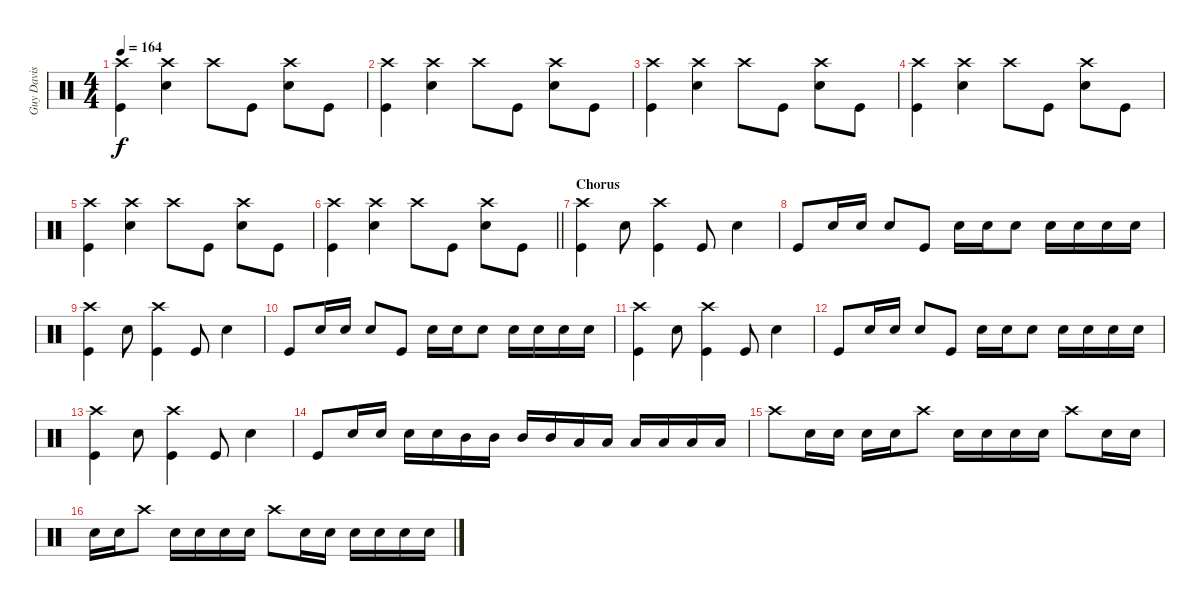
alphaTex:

\track ("Guy Davis" "Guy Davis") {instrument percussion}
\staff {score}
\articulation defaults
\ts (4 4)
\tempo 164
\clef neutral
\ks c
("Crash high (hit)" "Kick (hit)").4{dy f} ("Snare (hit) 2" "Crash high (hit)").4 "Crash high (hit)".8 "Kick (hit)".8 ("Snare (hit) 2" "Crash high (hit)").8 "Kick (hit)".8 |
("Crash high (hit)" "Kick (hit)").4 ("Snare (hit) 2" "Crash high (hit)").4 "Crash high (hit)".8 "Kick (hit)".8 ("Snare (hit) 2" "Crash high (hit)").8 "Kick (hit)".8 |
("Crash high (hit)" "Kick (hit)").4 ("Snare (hit) 2" "Crash high (hit)").4 "Crash high (hit)".8 "Kick (hit)".8 ("Snare (hit) 2" "Crash high (hit)").8 "Kick (hit)".8 |
("Crash high (hit)" "Kick (hit)").4 ("Snare (hit) 2" "Crash high (hit)").4 "Crash high (hit)".8 "Kick (hit)".8 ("Snare (hit) 2" "Crash high (hit)").8 "Kick (hit)".8 |
("Crash high (hit)" "Kick (hit)").4 ("Snare (hit) 2" "Crash high (hit)").4 "Crash high (hit)".8 "Kick (hit)".8 ("Snare (hit) 2" "Crash high (hit)").8 "Kick (hit)".8 |
\barLineRight lightlight
("Crash high (hit)" "Kick (hit)").4 ("Snare (hit) 2" "Crash high (hit)").4 "Crash high (hit)".8 "Kick (hit)".8 ("Snare (hit) 2" "Crash high (hit)").8 "Kick (hit)".8 |
\section ("" "Chorus")
("Crash high (hit)" "Kick (hit)").4 "Snare (hit) 2".8 ("Crash high (hit)" "Kick (hit)").4 "Kick (hit)".8 "Snare (hit) 2".4 |
"Kick (hit)".8 "Snare (hit) 2".16 "Snare (hit) 2".16 "Snare (hit) 2".8 "Kick (hit)".8 "Snare (hit) 2".16 "Snare (hit) 2".16 "Snare (hit) 2".8 "Snare (hit) 2".16 "Snare (hit) 2".16 "Snare (hit) 2".16 "Snare (hit) 2".16 |
("Crash high (hit)" "Kick (hit)").4 "Snare (hit) 2".8 ("Crash high (hit)" "Kick (hit)").4 "Kick (hit)".8 "Snare (hit) 2".4 |
"Kick (hit)".8 "Snare (hit) 2".16 "Snare (hit) 2".16 "Snare (hit) 2".8 "Kick (hit)".8 "Snare (hit) 2".16 "Snare (hit) 2".16 "Snare (hit) 2".8 "Snare (hit) 2".16 "Snare (hit) 2".16 "Snare (hit) 2".16 "Snare (hit) 2".16 |
("Crash high (hit)" "Kick (hit)").4 "Snare (hit) 2".8 ("Crash high (hit)" "Kick (hit)").4 "Kick (hit)".8 "Snare (hit) 2".4 |
"Kick (hit)".8 "Snare (hit) 2".16 "Snare (hit) 2".16 "Snare (hit) 2".8 "Kick (hit)".8 "Snare (hit) 2".16 "Snare (hit) 2".16 "Snare (hit) 2".8 "Snare (hit) 2".16 "Snare (hit) 2".16 "Snare (hit) 2".16 "Snare (hit) 2".16 |
("Crash high (hit)" "Kick (hit)").4 "Snare (hit) 2".8 ("Crash high (hit)" "Kick (hit)").4 "Kick (hit)".8 "Snare (hit) 2".4 |
"Kick (hit)".8 "Snare (hit) 2".16 "Snare (hit) 2".16 "Snare (hit) 2".16 "Snare (hit) 2".16 "Mid Tom (hit)".16 "Mid Tom (hit)".16 "Mid Tom (hit)".16 "Mid Tom (hit)".16 "Low Tom (hit)".16 "Low Tom (hit)".16 "Low Tom (hit)".16 "Low Tom (hit)".16 "Low Tom (hit)".16 "Low Tom (hit)".16 |
"Crash high (hit)".8 "Snare (hit) 2".16 "Snare (hit) 2".16 "Snare (hit) 2".16 "Snare (hit) 2".16 "Crash high (hit)".8 "Snare (hit) 2".16 "Snare (hit) 2".16 "Snare (hit) 2".16 "Snare (hit) 2".16 "Crash high (hit)".8 "Snare (hit) 2".16 "Snare (hit) 2".16 |
"Snare (hit) 2".16 "Snare (hit) 2".16 "Crash high (hit)".8 "Snare (hit) 2".16 "Snare (hit) 2".16 "Snare (hit) 2".16 "Snare (hit) 2".16 "Crash high (hit)".8 "Snare (hit) 2".16 "Snare (hit) 2".16 "Snare (hit) 2".16 "Snare (hit) 2".16 "Snare (hit) 2".16 "Snare (hit) 2".16
